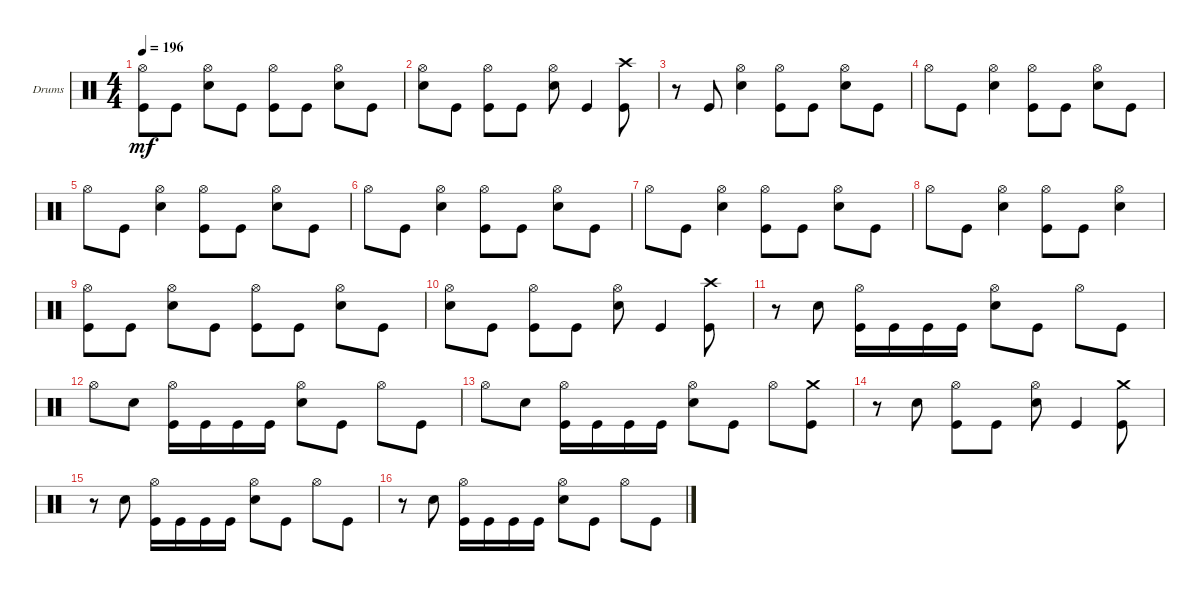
\defaultSystemsLayout 4
\bracketExtendMode groupsimilarinstruments
\firstSystemTrackNameOrientation horizontal
\otherSystemsTrackNameOrientation horizontal
\track ("Drumkit" "Drums") {instrument percussion}
\staff {score}
\articulation defaults
\ts (4 4)
\tempo 196
\clef neutral
\ks c
("Kick (hit)" "Hi-Hat (open)").8{dy mf} "Kick (hit)".8 ("Snare (hit) 2" "Hi-Hat (open)").8 "Kick (hit)".8 ("Kick (hit)" "Hi-Hat (open)").8 "Kick (hit)".8 ("Snare (hit) 2" "Hi-Hat (open)").8 "Kick (hit)".8 |
("Snare (hit) 2" "Hi-Hat (open)").8 "Kick (hit)".8 ("Kick (hit)" "Hi-Hat (open)").8 "Kick (hit)".8 ("Snare (hit) 2" "Hi-Hat (open)").8 "Kick (hit)".4 ("Kick (hit)" "Crash high (hit)").8 |
r.8 "Kick (hit)".8 ("Snare (hit) 2" "Hi-Hat (open)").4 ("Kick (hit)" "Hi-Hat (open)").8 "Kick (hit)".8 ("Snare (hit) 2" "Hi-Hat (open)").8 "Kick (hit)".8 |
"Hi-Hat (open)".8 "Kick (hit)".8 ("Snare (hit) 2" "Hi-Hat (open)").4 ("Kick (hit)" "Hi-Hat (open)").8 "Kick (hit)".8 ("Snare (hit) 2" "Hi-Hat (open)").8 "Kick (hit)".8 |
"Hi-Hat (open)".8 "Kick (hit)".8 ("Snare (hit) 2" "Hi-Hat (open)").4 ("Kick (hit)" "Hi-Hat (open)").8 "Kick (hit)".8 ("Snare (hit) 2" "Hi-Hat (open)").8 "Kick (hit)".8 |
"Hi-Hat (open)".8 "Kick (hit)".8 ("Snare (hit) 2" "Hi-Hat (open)").4 ("Kick (hit)" "Hi-Hat (open)").8 "Kick (hit)".8 ("Snare (hit) 2" "Hi-Hat (open)").8 "Kick (hit)".8 |
"Hi-Hat (open)".8 "Kick (hit)".8 ("Snare (hit) 2" "Hi-Hat (open)").4 ("Kick (hit)" "Hi-Hat (open)").8 "Kick (hit)".8 ("Snare (hit) 2" "Hi-Hat (open)").8 "Kick (hit)".8 |
"Hi-Hat (open)".8 "Kick (hit)".8 ("Snare (hit) 2" "Hi-Hat (open)").4 ("Kick (hit)" "Hi-Hat (open)").8 "Kick (hit)".8 ("Snare (hit) 2" "Hi-Hat (open)").4 |
("Kick (hit)" "Hi-Hat (open)").8 "Kick (hit)".8 ("Snare (hit) 2" "Hi-Hat (open)").8 "Kick (hit)".8 ("Kick (hit)" "Hi-Hat (open)").8 "Kick (hit)".8 ("Snare (hit) 2" "Hi-Hat (open)").8 "Kick (hit)".8 |
("Snare (hit) 2" "Hi-Hat (open)").8 "Kick (hit)".8 ("Kick (hit)" "Hi-Hat (open)").8 "Kick (hit)".8 ("Snare (hit) 2" "Hi-Hat (open)").8 "Kick (hit)".4 ("Kick (hit)" "Crash high (hit)").8 |
r.8 "Snare (hit) 2".8 ("Kick (hit)" "Hi-Hat (open)").16 "Kick (hit)".16 "Kick (hit)".16 "Kick (hit)".16 ("Snare (hit) 2" "Hi-Hat (open)").8 "Kick (hit)".8 "Hi-Hat (open)".8 "Kick (hit)".8 |
"Hi-Hat (open)".8 "Snare (hit) 2".8 ("Kick (hit)" "Hi-Hat (open)").16 "Kick (hit)".16 "Kick (hit)".16 "Kick (hit)".16 ("Snare (hit) 2" "Hi-Hat (open)").8 "Kick (hit)".8 "Hi-Hat (open)".8 "Kick (hit)".8 |
"Hi-Hat (open)".8 "Snare (hit) 2".8 ("Kick (hit)" "Hi-Hat (open)").16 "Kick (hit)".16 "Kick (hit)".16 "Kick (hit)".16 ("Snare (hit) 2" "Hi-Hat (open)").8 "Kick (hit)".8 "Hi-Hat (open)".8 ("Kick (hit)" "Crash medium (hit)").8 |
r.8 "Snare (hit) 2".8 ("Kick (hit)" "Hi-Hat (open)").8 "Kick (hit)".8 ("Snare (hit) 2" "Hi-Hat (open)").8 "Kick (hit)".4 ("Kick (hit)" "Crash medium (hit)").8 |
r.8 "Snare (hit) 2".8 ("Kick (hit)" "Hi-Hat (open)").16 "Kick (hit)".16 "Kick (hit)".16 "Kick (hit)".16 ("Snare (hit) 2" "Hi-Hat (open)").8 "Kick (hit)".8 "Hi-Hat (open)".8 "Kick (hit)".8 |
r.8 "Snare (hit) 2".8 ("Kick (hit)" "Hi-Hat (open)").16 "Kick (hit)".16 "Kick (hit)".16 "Kick (hit)".16 ("Snare (hit) 2" "Hi-Hat (open)").8 "Kick (hit)".8 "Hi-Hat (open)".8 "Kick (hit)".8
